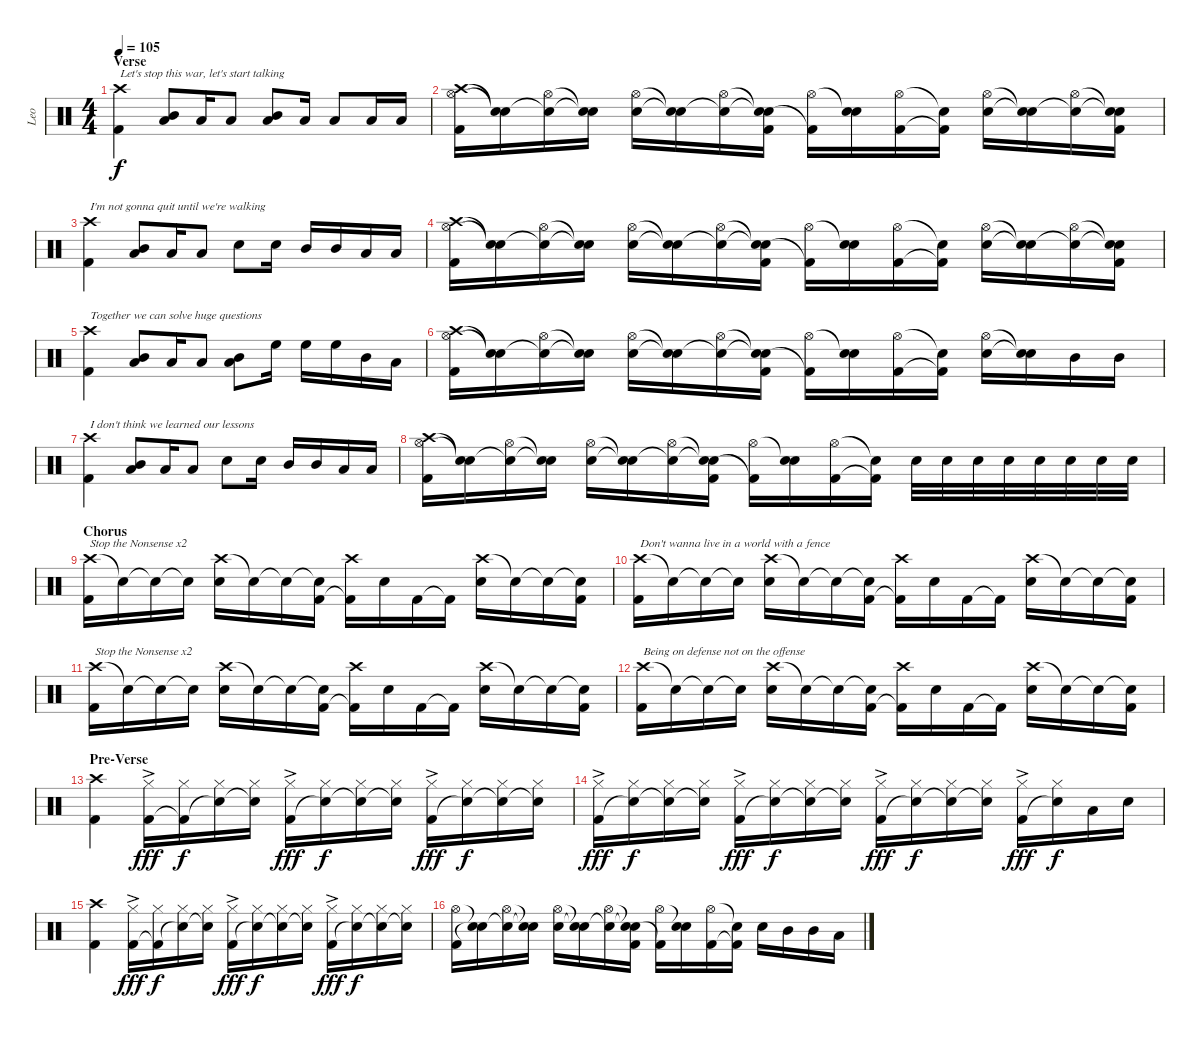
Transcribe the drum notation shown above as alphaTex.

\track ("Leo" "Leo") {instrument percussion}
\staff {score}
\articulation defaults
\ts (4 4)
\section ("" "Verse")
\tempo 105
\clef neutral
\ks c
("Crash high (hit)" "Kick (hit) 2").4{txt "Let's stop this war, let's start talking" dy f} ("Mid Tom (hit)" "Low Floor Tom (hit)").8 "Low Floor Tom (hit)".16 "Low Floor Tom (hit)".8 ("Mid Tom (hit)" "Low Floor Tom (hit)").8 "Low Floor Tom (hit)".16 "Low Floor Tom (hit)".8 "Low Floor Tom (hit)".16 "Low Floor Tom (hit)".16 |
("Hi-Hat (open)" "Crash high (hit)" "Kick (hit) 2").16 ("Snare (hit)"{t} "Snare (hit)"{t}).16 ("Hi-Hat (open)" "Snare (hit)"{t}).16 ("Snare (hit)"{t} "Snare (hit)"{t}).16 ("Hi-Hat (open)" "Snare (hit) 2").16 ("Snare (hit)"{t} "Snare (hit)"{t}).16 ("Hi-Hat (open)" "Snare (hit)"{t}).16 ("Snare (hit)"{t} "Snare (hit)"{t} "Kick (hit) 2").16 ("Hi-Hat (open)" "Kick (hit) 2"{t}).16 ("Snare (hit)"{t} "Snare (hit) 2").16 ("Hi-Hat (open)" "Kick (hit) 2").16 ("Snare (hit)"{t} "Kick (hit) 2"{t}).16 ("Hi-Hat (open)" "Snare (hit) 2").16 ("Snare (hit)"{t} "Snare (hit) 2"{t}).16 ("Hi-Hat (open)" "Snare (hit)"{t}).16 ("Snare (hit)"{t} "Snare (hit)"{t} "Kick (hit) 2").16 |
("Crash high (hit)" "Kick (hit) 2").4{txt "I'm not gonna quit until we're walking"} ("Mid Tom (hit)" "Low Floor Tom (hit)").8 "Low Floor Tom (hit)".16 "Low Floor Tom (hit)".8 "Snare (hit) 2".8 "Snare (hit) 2".16 "Mid Tom (hit)".16 "Mid Tom (hit)".16 "Low Floor Tom (hit)".16 "Low Floor Tom (hit)".16 |
("Hi-Hat (open)" "Crash high (hit)" "Kick (hit) 2").16 ("Snare (hit)"{t} "Snare (hit)"{t}).16 ("Hi-Hat (open)" "Snare (hit)"{t}).16 ("Snare (hit)"{t} "Snare (hit)"{t}).16 ("Hi-Hat (open)" "Snare (hit) 2").16 ("Snare (hit)"{t} "Snare (hit)"{t}).16 ("Hi-Hat (open)" "Snare (hit)"{t}).16 ("Snare (hit)"{t} "Snare (hit)"{t} "Kick (hit) 2").16 ("Hi-Hat (open)" "Kick (hit) 2"{t}).16 ("Snare (hit)"{t} "Snare (hit) 2").16 ("Hi-Hat (open)" "Kick (hit) 2").16 ("Snare (hit)"{t} "Kick (hit) 2"{t}).16 ("Hi-Hat (open)" "Snare (hit) 2").16 ("Snare (hit)"{t} "Snare (hit) 2"{t}).16 ("Hi-Hat (open)" "Snare (hit)"{t}).16 ("Snare (hit)"{t} "Snare (hit)"{t} "Kick (hit) 2").16 |
("Crash high (hit)" "Kick (hit) 2").4{txt "Together we can solve huge questions"} ("Mid Tom (hit)" "Low Floor Tom (hit)").8 "Low Floor Tom (hit)".16 "Low Floor Tom (hit)".8 ("Mid Tom (hit)" "Low Floor Tom (hit)").8 "High Floor Tom (hit)".16 "High Floor Tom (hit)".16 "High Floor Tom (hit)".16 "Mid Tom (hit)".16 "Low Floor Tom (hit)".16 |
("Hi-Hat (open)" "Crash high (hit)" "Kick (hit) 2").16 ("Snare (hit)"{t} "Snare (hit)"{t}).16 ("Hi-Hat (open)" "Snare (hit)"{t}).16 ("Snare (hit)"{t} "Snare (hit)"{t}).16 ("Hi-Hat (open)" "Snare (hit) 2").16 ("Snare (hit)"{t} "Snare (hit)"{t}).16 ("Hi-Hat (open)" "Snare (hit)"{t}).16 ("Snare (hit)"{t} "Snare (hit)"{t} "Kick (hit) 2").16 ("Hi-Hat (open)" "Kick (hit) 2"{t}).16 ("Snare (hit)"{t} "Snare (hit) 2").16 ("Hi-Hat (open)" "Kick (hit) 2").16 ("Snare (hit)"{t} "Kick (hit) 2"{t}).16 ("Hi-Hat (open)" "Snare (hit) 2").16 ("Snare (hit)"{t} "Snare (hit) 2"{t}).16 "Mid Tom (hit)".16 "Mid Tom (hit)".16 |
("Crash high (hit)" "Kick (hit) 2").4{txt "I don't think we learned our lessons"} ("Mid Tom (hit)" "Low Floor Tom (hit)").8 "Low Floor Tom (hit)".16 "Low Floor Tom (hit)".8 "Snare (hit) 2".8 "Snare (hit) 2".16 "Mid Tom (hit)".16 "Mid Tom (hit)".16 "Low Floor Tom (hit)".16 "Low Floor Tom (hit)".16 |
("Hi-Hat (open)" "Crash high (hit)" "Kick (hit) 2").16 ("Snare (hit)"{t} "Snare (hit)"{t}).16 ("Hi-Hat (open)" "Snare (hit)"{t}).16 ("Snare (hit)"{t} "Snare (hit)"{t}).16 ("Hi-Hat (open)" "Snare (hit) 2").16 ("Snare (hit)"{t} "Snare (hit)"{t}).16 ("Hi-Hat (open)" "Snare (hit)"{t}).16 ("Snare (hit)"{t} "Snare (hit)"{t} "Kick (hit) 2").16 ("Hi-Hat (open)" "Kick (hit) 2"{t}).16 ("Snare (hit)"{t} "Snare (hit) 2").16 ("Hi-Hat (open)" "Kick (hit) 2").16 ("Snare (hit)"{t} "Kick (hit) 2"{t}).16 "Snare (hit) 2".32 "Snare (hit) 2".32 "Snare (hit) 2".32 "Snare (hit) 2".32 "Snare (hit) 2".32 "Snare (hit) 2".32 "Snare (hit) 2".32 "Snare (hit) 2".32 |
\section ("" "Chorus")
("Crash high (hit)" "Kick (hit) 2").16{txt "Stop the Nonsense x2"} "Snare (hit)"{t}.16 "Snare (hit)"{t}.16 "Snare (hit)"{t}.16 ("Crash high (hit)" "Snare (hit) 2").16 "Snare (hit)"{t}.16 "Snare (hit)"{t}.16 ("Snare (hit)"{t} "Kick (hit) 2").16 ("Crash high (hit)" "Kick (hit) 2"{t}).16 "Snare (hit) 2".16 "Kick (hit) 2".16 "Kick (hit) 2"{t}.16 ("Crash high (hit)" "Snare (hit) 2").16 "Snare (hit) 2"{t}.16 "Snare (hit)"{t}.16 ("Snare (hit)"{t} "Kick (hit) 2").16 |
("Crash high (hit)" "Kick (hit) 2").16{txt "Don't wanna live in a world with a fence"} "Snare (hit)"{t}.16 "Snare (hit)"{t}.16 "Snare (hit)"{t}.16 ("Crash high (hit)" "Snare (hit) 2").16 "Snare (hit)"{t}.16 "Snare (hit)"{t}.16 ("Snare (hit)"{t} "Kick (hit) 2").16 ("Crash high (hit)" "Kick (hit) 2"{t}).16 "Snare (hit) 2".16 "Kick (hit) 2".16 "Kick (hit) 2"{t}.16 ("Crash high (hit)" "Snare (hit) 2").16 "Snare (hit) 2"{t}.16 "Snare (hit)"{t}.16 ("Snare (hit)"{t} "Kick (hit) 2").16 |
("Crash high (hit)" "Kick (hit) 2").16{txt "Stop the Nonsense x2"} "Snare (hit)"{t}.16 "Snare (hit)"{t}.16 "Snare (hit)"{t}.16 ("Crash high (hit)" "Snare (hit) 2").16 "Snare (hit)"{t}.16 "Snare (hit)"{t}.16 ("Snare (hit)"{t} "Kick (hit) 2").16 ("Crash high (hit)" "Kick (hit) 2"{t}).16 "Snare (hit) 2".16 "Kick (hit) 2".16 "Kick (hit) 2"{t}.16 ("Crash high (hit)" "Snare (hit) 2").16 "Snare (hit) 2"{t}.16 "Snare (hit)"{t}.16 ("Snare (hit)"{t} "Kick (hit) 2").16 |
("Crash high (hit)" "Kick (hit) 2").16{txt "Being on defense not on the offense"} "Snare (hit)"{t}.16 "Snare (hit)"{t}.16 "Snare (hit)"{t}.16 ("Crash high (hit)" "Snare (hit) 2").16 "Snare (hit)"{t}.16 "Snare (hit)"{t}.16 ("Snare (hit)"{t} "Kick (hit) 2").16 ("Crash high (hit)" "Kick (hit) 2"{t}).16 "Snare (hit) 2".16 "Kick (hit) 2".16 "Kick (hit) 2"{t}.16 ("Crash high (hit)" "Snare (hit) 2").16 "Snare (hit) 2"{t}.16 "Snare (hit)"{t}.16 ("Snare (hit)"{t} "Kick (hit) 2").16 |
\section ("" "Pre-Verse")
("Crash high (hit)" "Kick (hit) 2").4 ("Hi-Hat (closed)"{ac} "Kick (hit) 2").16{dy fff} ("Hi-Hat (closed)" "Kick (hit) 2"{t}).16{dy f} ("Hi-Hat (closed)" "Snare (hit)"{t}).16 ("Hi-Hat (closed)" "Snare (hit)"{t}).16 ("Hi-Hat (closed)"{ac} "Kick (hit) 2").16{dy fff} ("Hi-Hat (closed)" "Snare (hit)"{t}).16{dy f} ("Hi-Hat (closed)" "Snare (hit)"{t}).16 ("Hi-Hat (closed)" "Snare (hit)"{t}).16 ("Hi-Hat (closed)"{ac} "Kick (hit) 2").16{dy fff} ("Hi-Hat (closed)" "Snare (hit)"{t}).16{dy f} ("Hi-Hat (closed)" "Snare (hit)"{t}).16 ("Hi-Hat (closed)" "Snare (hit)"{t}).16 |
("Hi-Hat (closed)"{ac} "Kick (hit) 2").16{dy fff} ("Hi-Hat (closed)" "Snare (hit)"{t}).16{dy f} ("Hi-Hat (closed)" "Snare (hit)"{t}).16 ("Hi-Hat (closed)" "Snare (hit)"{t}).16 ("Hi-Hat (closed)"{ac} "Kick (hit) 2").16{dy fff} ("Hi-Hat (closed)" "Snare (hit)"{t}).16{dy f} ("Hi-Hat (closed)" "Snare (hit)"{t}).16 ("Hi-Hat (closed)" "Snare (hit)"{t}).16 ("Hi-Hat (closed)"{ac} "Kick (hit) 2").16{dy fff} ("Hi-Hat (closed)" "Snare (hit)"{t}).16{dy f} ("Hi-Hat (closed)" "Snare (hit)"{t}).16 ("Hi-Hat (closed)" "Snare (hit)"{t}).16 ("Hi-Hat (closed)"{ac} "Kick (hit) 2").16{dy fff} ("Hi-Hat (closed)" "Snare (hit)"{t}).16{dy f} "Low Floor Tom (hit)".16 "Snare (hit) 2".16 |
("Crash high (hit)" "Kick (hit) 2").4 ("Hi-Hat (closed)"{ac} "Kick (hit) 2").16{dy fff} ("Hi-Hat (closed)" "Kick (hit) 2"{t}).16{dy f} ("Hi-Hat (closed)" "Snare (hit)"{t}).16 ("Hi-Hat (closed)" "Snare (hit)"{t}).16 ("Hi-Hat (closed)"{ac} "Kick (hit) 2").16{dy fff} ("Hi-Hat (closed)" "Snare (hit)"{t}).16{dy f} ("Hi-Hat (closed)" "Snare (hit)"{t}).16 ("Hi-Hat (closed)" "Snare (hit)"{t}).16 ("Hi-Hat (closed)"{ac} "Kick (hit) 2").16{dy fff} ("Hi-Hat (closed)" "Snare (hit)"{t}).16{dy f} ("Hi-Hat (closed)" "Snare (hit)"{t}).16 ("Hi-Hat (closed)" "Snare (hit)"{t}).16 |
("Hi-Hat (open)" "Kick (hit) 2").16 ("Snare (hit)"{t} "Snare (hit)"{t}).16 ("Hi-Hat (open)" "Snare (hit)"{t}).16 ("Snare (hit)"{t} "Snare (hit)"{t}).16 ("Hi-Hat (open)" "Snare (hit) 2").16 ("Snare (hit)"{t} "Snare (hit)"{t}).16 ("Hi-Hat (open)" "Snare (hit)"{t}).16 ("Snare (hit)"{t} "Snare (hit)"{t} "Kick (hit) 2").16 ("Hi-Hat (open)" "Kick (hit) 2"{t}).16 ("Snare (hit)"{t} "Snare (hit) 2").16 ("Hi-Hat (open)" "Kick (hit) 2").16 ("Snare (hit)"{t} "Kick (hit) 2"{t}).16 "Snare (hit) 2".16 "Mid Tom (hit)".16 "Mid Tom (hit)".16 "Low Floor Tom (hit)".16
